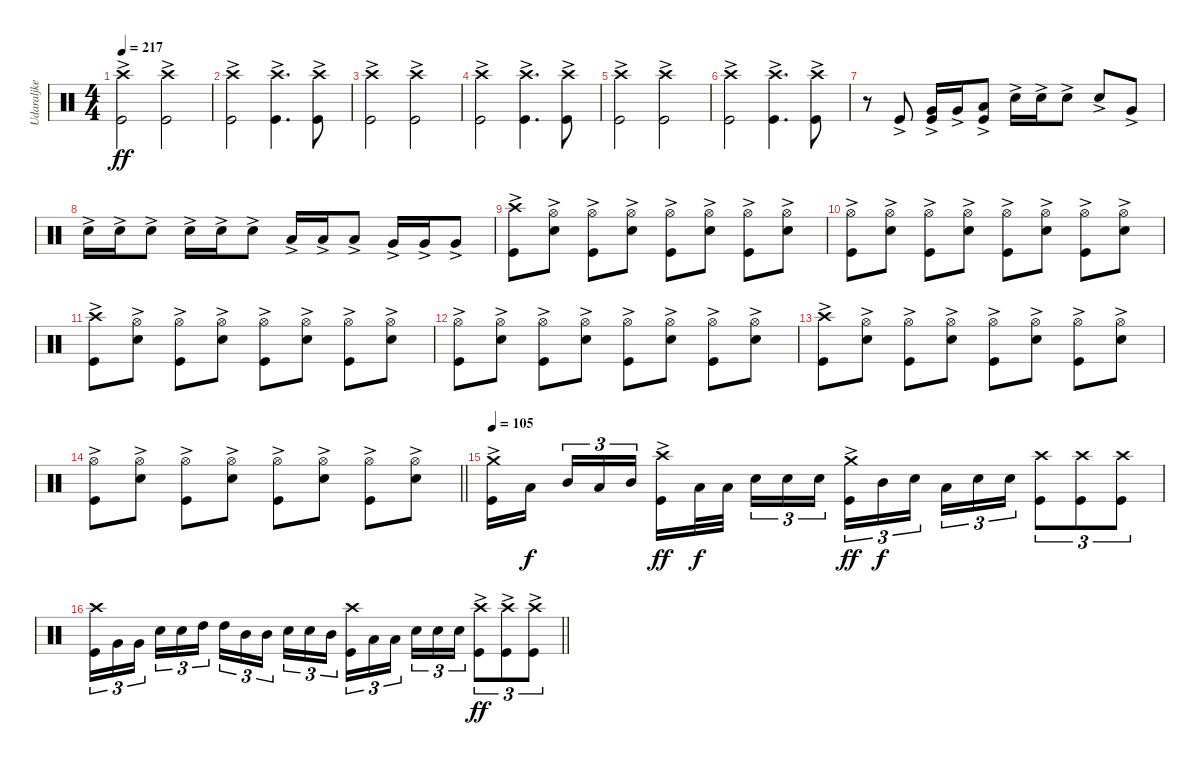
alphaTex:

\track ("Udaraljke" "Udaraljke") {instrument percussion}
\staff {score}
\articulation defaults
\ts (4 4)
\section ("" "")
\tempo 217
\clef neutral
\ks c
("Kick (hit)"{ac} "Crash high (hit)").2{dy ff} ("Kick (hit)"{ac} "Crash high (hit)").2 |
("Kick (hit)"{ac} "Crash high (hit)").2 ("Kick (hit)"{ac} "Crash high (hit)").4{d} ("Kick (hit)"{ac} "Crash high (hit)").8 |
("Kick (hit)"{ac} "Crash high (hit)").2 ("Kick (hit)"{ac} "Crash high (hit)").2 |
("Kick (hit)"{ac} "Crash high (hit)").2 ("Kick (hit)"{ac} "Crash high (hit)").4{d} ("Kick (hit)"{ac} "Crash high (hit)").8 |
("Kick (hit)"{ac} "Crash high (hit)").2 ("Kick (hit)"{ac} "Crash high (hit)").2 |
("Kick (hit)"{ac} "Crash high (hit)").2 ("Kick (hit)"{ac} "Crash high (hit)").4{d} ("Kick (hit)"{ac} "Crash high (hit)").8 |
r.8 "Kick (hit)"{ac}.8 ("Kick (hit)"{ac} "Very Low Tom (hit)"{ac}).16 "Very Low Tom (hit)"{ac}.16 ("Kick (hit)"{ac} "Low Floor Tom (hit)"{ac}).8 "Snare (hit) 2"{ac}.16 "Snare (hit) 2"{ac}.16 "Snare (hit) 2"{ac}.8 "Snare (hit) 2"{ac}.8 "Very Low Tom (hit)"{ac}.8 |
"Snare (hit) 2"{ac}.16 "Snare (hit) 2"{ac}.16 "Snare (hit) 2"{ac}.8 "Snare (hit) 2"{ac}.16 "Snare (hit) 2"{ac}.16 "Snare (hit) 2"{ac}.8 "Low Tom (hit)"{ac}.16 "Low Tom (hit)"{ac}.16 "Low Tom (hit)"{ac}.8 "Very Low Tom (hit)"{ac}.16 "Very Low Tom (hit)"{ac}.16 "Very Low Tom (hit)"{ac}.8 |
("Kick (hit)"{ac} "Crash high (hit)"{ac}).8 ("Snare (hit) 2"{ac} "Hi-Hat (open)").8 ("Kick (hit)"{ac} "Hi-Hat (open)").8 ("Snare (hit) 2"{ac} "Hi-Hat (open)").8 ("Kick (hit)"{ac} "Hi-Hat (open)").8 ("Snare (hit) 2"{ac} "Hi-Hat (open)").8 ("Kick (hit)"{ac} "Hi-Hat (open)").8 ("Snare (hit) 2"{ac} "Hi-Hat (open)").8 |
("Kick (hit)"{ac} "Hi-Hat (open)"{ac}).8 ("Snare (hit) 2"{ac} "Hi-Hat (open)").8 ("Kick (hit)"{ac} "Hi-Hat (open)").8 ("Snare (hit) 2"{ac} "Hi-Hat (open)").8 ("Kick (hit)"{ac} "Hi-Hat (open)").8 ("Snare (hit) 2"{ac} "Hi-Hat (open)").8 ("Kick (hit)"{ac} "Hi-Hat (open)").8 ("Snare (hit) 2"{ac} "Hi-Hat (open)").8 |
("Kick (hit)"{ac} "Crash high (hit)"{ac}).8 ("Snare (hit) 2"{ac} "Hi-Hat (open)").8 ("Kick (hit)"{ac} "Hi-Hat (open)").8 ("Snare (hit) 2"{ac} "Hi-Hat (open)").8 ("Kick (hit)"{ac} "Hi-Hat (open)").8 ("Snare (hit) 2"{ac} "Hi-Hat (open)").8 ("Kick (hit)"{ac} "Hi-Hat (open)").8 ("Snare (hit) 2"{ac} "Hi-Hat (open)").8 |
("Kick (hit)"{ac} "Hi-Hat (open)"{ac}).8 ("Snare (hit) 2"{ac} "Hi-Hat (open)").8 ("Kick (hit)"{ac} "Hi-Hat (open)").8 ("Snare (hit) 2"{ac} "Hi-Hat (open)").8 ("Kick (hit)"{ac} "Hi-Hat (open)").8 ("Snare (hit) 2"{ac} "Hi-Hat (open)").8 ("Kick (hit)"{ac} "Hi-Hat (open)").8 ("Snare (hit) 2"{ac} "Hi-Hat (open)").8 |
("Kick (hit)"{ac} "Crash high (hit)"{ac}).8 ("Snare (hit) 2"{ac} "Hi-Hat (open)").8 ("Kick (hit)"{ac} "Hi-Hat (open)").8 ("Snare (hit) 2"{ac} "Hi-Hat (open)").8 ("Kick (hit)"{ac} "Hi-Hat (open)").8 ("Snare (hit) 2"{ac} "Hi-Hat (open)").8 ("Kick (hit)"{ac} "Hi-Hat (open)").8 ("Snare (hit) 2"{ac} "Hi-Hat (open)").8 |
\barLineRight lightlight
("Kick (hit)"{ac} "Hi-Hat (open)"{ac}).8 ("Snare (hit) 2"{ac} "Hi-Hat (open)").8 ("Kick (hit)"{ac} "Hi-Hat (open)").8 ("Snare (hit) 2"{ac} "Hi-Hat (open)").8 ("Kick (hit)"{ac} "Hi-Hat (open)").8 ("Snare (hit) 2"{ac} "Hi-Hat (open)").8 ("Kick (hit)"{ac} "Hi-Hat (open)").8 ("Snare (hit) 2"{ac} "Hi-Hat (open)").8 |
\section ("" "")
\tempo 105
("Kick (hit)"{ac} "Crash medium (hit)").16 "Low Tom (hit)".16{dy f beam splitsecondary} "Mid Tom (hit)".16{tu (3 2)} "Low Tom (hit)".16{tu (3 2)} "Mid Tom (hit)".16{tu (3 2)} ("Kick (hit)"{ac} "Crash high (hit)").16{dy ff} "Low Tom (hit)".32{dy f} "Low Tom (hit)".32{beam splitsecondary} "Snare (hit) 2".16{tu (3 2)} "Snare (hit) 2".16{tu (3 2)} "Snare (hit) 2".16{tu (3 2)} ("Kick (hit)"{ac} "Crash medium (hit)").16{tu (3 2) dy ff} "Mid Tom (hit)".16{tu (3 2) dy f} "Snare (hit) 2".16{tu (3 2) beam splitsecondary} "Low Tom (hit)".16{tu (3 2)} "Snare (hit) 2".16{tu (3 2)} "Snare (hit) 2".16{tu (3 2)} ("Kick (hit)" "Crash high (hit)").8{tu (3 2)} ("Kick (hit)" "Crash high (hit)").8{tu (3 2)} ("Kick (hit)" "Crash high (hit)").8{tu (3 2)} |
\barLineRight lightlight
("Kick (hit)" "Crash high (hit)").16{tu (3 2)} "Very Low Tom (hit)".16{tu (3 2)} "Very Low Tom (hit)".16{tu (3 2) beam splitsecondary} "Snare (hit) 2".16{tu (3 2)} "Snare (hit) 2".16{tu (3 2)} "High Tom (hit)".16{tu (3 2)} "High Tom (hit)".16{tu (3 2)} "Mid Tom (hit)".16{tu (3 2)} "Mid Tom (hit)".16{tu (3 2) beam splitsecondary} "Snare (hit) 2".16{tu (3 2)} "Snare (hit) 2".16{tu (3 2)} "Mid Tom (hit)".16{tu (3 2)} ("Kick (hit)" "Crash high (hit)").16{tu (3 2)} "Low Tom (hit)".16{tu (3 2)} "Low Tom (hit)".16{tu (3 2) beam splitsecondary} "Snare (hit) 2".16{tu (3 2)} "Snare (hit) 2".16{tu (3 2)} "Snare (hit) 2".16{tu (3 2)} ("Kick (hit)"{ac} "Crash high (hit)").8{tu (3 2) dy ff} ("Kick (hit)"{ac} "Crash high (hit)").8{tu (3 2)} ("Kick (hit)"{ac} "Crash high (hit)").8{tu (3 2)}
